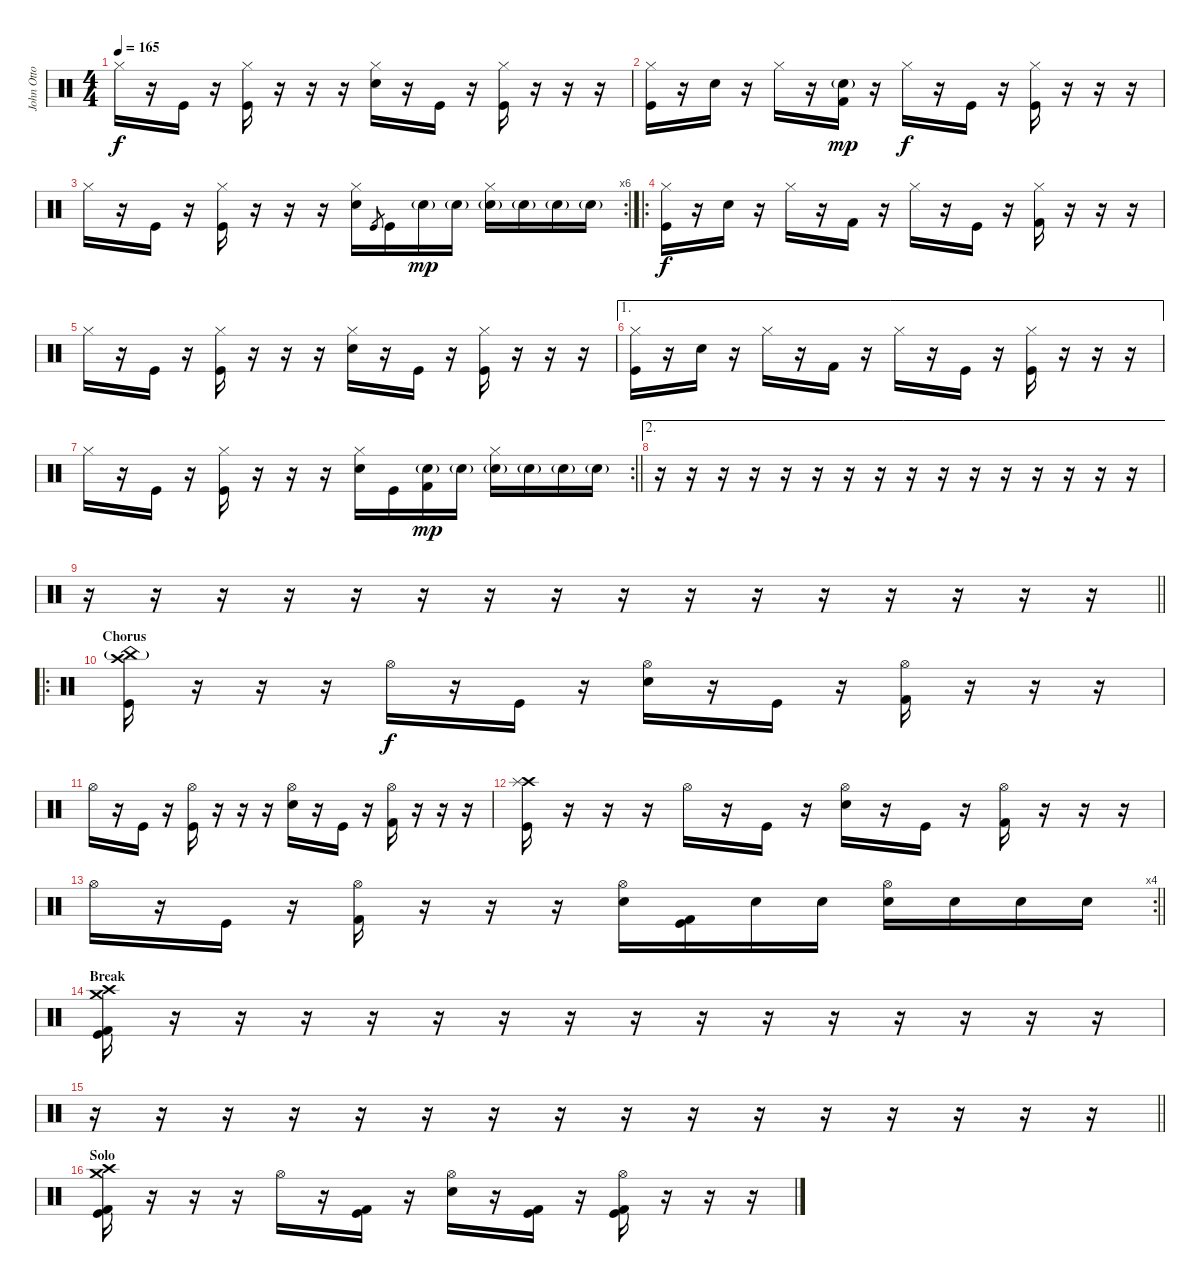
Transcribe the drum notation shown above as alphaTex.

\track ("John Otto" "John Otto") {instrument percussion}
\staff {score}
\articulation defaults
\ts (4 4)
\tempo 165
\clef neutral
\ks c "Hi-Hat (closed)".16{dy f}
r.16 "Kick (hit)".16 r.16 ("Hi-Hat (closed)" "Kick (hit)").16 r.16 r.16 r.16 ("Hi-Hat (closed)" "Electric Snare (hit)").16 r.16 "Kick (hit)".16 r.16 ("Hi-Hat (closed)" "Kick (hit)").16 r.16 r.16 r.16 |
("Hi-Hat (closed)" "Kick (hit)").16 r.16 "Electric Snare (hit)".16 r.16 "Hi-Hat (closed)".16 r.16 ("Electric Snare (hit)"{g} "Kick (hit) 2").16{dy mp} r.16 "Hi-Hat (closed)".16{dy f} r.16 "Kick (hit)".16 r.16 ("Hi-Hat (closed)" "Kick (hit)").16 r.16 r.16 r.16 |
\rc 6 "Hi-Hat (closed)".16
r.16 "Kick (hit)".16 r.16 ("Hi-Hat (closed)" "Kick (hit)").16 r.16 r.16 r.16 ("Hi-Hat (closed)" "Electric Snare (hit)").16 "Kick (hit)".8{gr} "Kick (hit)".16 "Electric Snare (hit)"{g}.16{dy mp} "Electric Snare (hit)"{g}.16 ("Hi-Hat (closed)" "Electric Snare (hit)"{g}).16 "Electric Snare (hit)"{g}.16 "Electric Snare (hit)"{g}.16 "Electric Snare (hit)"{g}.16 |
\ro
("Hi-Hat (closed)" "Kick (hit)").16{dy f} r.16 "Electric Snare (hit)".16 r.16 "Hi-Hat (closed)".16 r.16 "Kick (hit) 2".16 r.16 "Hi-Hat (closed)".16 r.16 "Kick (hit)".16 r.16 ("Hi-Hat (closed)" "Kick (hit) 2").16 r.16 r.16 r.16 |
"Hi-Hat (closed)".16 r.16 "Kick (hit)".16 r.16 ("Hi-Hat (closed)" "Kick (hit)").16 r.16 r.16 r.16 ("Hi-Hat (closed)" "Electric Snare (hit)").16 r.16 "Kick (hit)".16 r.16 ("Hi-Hat (closed)" "Kick (hit)").16 r.16 r.16 r.16 |
\ae 1
("Hi-Hat (closed)" "Kick (hit)").16 r.16 "Electric Snare (hit)".16 r.16 "Hi-Hat (closed)".16 r.16 "Kick (hit) 2".16 r.16 "Hi-Hat (closed)".16 r.16 "Kick (hit)".16 r.16 ("Hi-Hat (closed)" "Kick (hit)").16 r.16 r.16 r.16 |
\rc 2
\barLineRight lightlight "Hi-Hat (closed)".16
r.16 "Kick (hit)".16 r.16 ("Hi-Hat (closed)" "Kick (hit)").16 r.16 r.16 r.16 ("Hi-Hat (closed)" "Electric Snare (hit)").16 "Kick (hit)".16 ("Electric Snare (hit)"{g} "Kick (hit) 2").16{dy mp} "Electric Snare (hit)"{g}.16 ("Hi-Hat (closed)" "Electric Snare (hit)"{g}).16 "Electric Snare (hit)"{g}.16 "Electric Snare (hit)"{g}.16 "Electric Snare (hit)"{g}.16 |
\ae 2
r.16 r.16 r.16 r.16 r.16 r.16 r.16 r.16 r.16 r.16 r.16 r.16 r.16 r.16 r.16 r.16 |
\barLineRight lightlight
r.16 r.16 r.16 r.16 r.16 r.16 r.16 r.16 r.16 r.16 r.16 r.16 r.16 r.16 r.16 r.16 |
\ro
\section ("" "Chorus")
("Crash high (hit)" "China (hit)"{g} "Kick (hit)").16 r.16 r.16 r.16 "Hi-Hat (open)".16{dy f} r.16 "Kick (hit)".16 r.16 ("Hi-Hat (open)" "Electric Snare (hit)").16 r.16 "Kick (hit)".16 r.16 ("Hi-Hat (open)" "Kick (hit) 2").16 r.16 r.16 r.16 |
"Hi-Hat (open)".16 r.16 "Kick (hit)".16 r.16 ("Hi-Hat (open)" "Kick (hit)").16 r.16 r.16 r.16 ("Hi-Hat (open)" "Electric Snare (hit)").16 r.16 "Kick (hit)".16 r.16 ("Hi-Hat (open)" "Kick (hit) 2").16 r.16 r.16 r.16 |
("Crash high (hit)" "Splash (hit)" "Kick (hit)").16 r.16 r.16 r.16 "Hi-Hat (open)".16 r.16 "Kick (hit)".16 r.16 ("Hi-Hat (open)" "Electric Snare (hit)").16 r.16 "Kick (hit)".16 r.16 ("Hi-Hat (open)" "Kick (hit) 2").16 r.16 r.16 r.16 |
\rc 4
\barLineRight lightlight "Hi-Hat (open)".16
r.16 "Kick (hit)".16 r.16 ("Hi-Hat (open)" "Kick (hit) 2").16 r.16 r.16 r.16 ("Hi-Hat (open)" "Electric Snare (hit)").16 ("Kick (hit) 2" "Kick (hit)").16 "Electric Snare (hit)".16 "Electric Snare (hit)".16 ("Hi-Hat (open)" "Electric Snare (hit)").16 "Electric Snare (hit)".16 "Electric Snare (hit)".16 "Electric Snare (hit)".16 |
\section ("" "Break")
("Crash high (hit)" "Crash medium (hit)" "Kick (hit) 2" "Kick (hit)").16 r.16 r.16 r.16 r.16 r.16 r.16 r.16 r.16 r.16 r.16 r.16 r.16 r.16 r.16 r.16 |
\barLineRight lightlight
r.16 r.16 r.16 r.16 r.16 r.16 r.16 r.16 r.16 r.16 r.16 r.16 r.16 r.16 r.16 r.16 |
\section ("" "Solo")
("Crash high (hit)" "Crash medium (hit)" "Kick (hit)" "Kick (hit) 2").16 r.16 r.16 r.16 "Hi-Hat (open)".16 r.16 ("Kick (hit)" "Kick (hit) 2").16 r.16 ("Hi-Hat (open)" "Electric Snare (hit)").16 r.16 ("Kick (hit)" "Kick (hit) 2").16 r.16 ("Hi-Hat (open)" "Kick (hit)" "Kick (hit) 2").16 r.16 r.16 r.16
